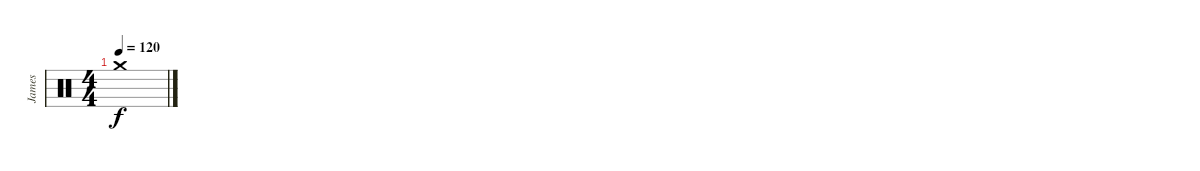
\track ("James" "James") {instrument percussion}
\staff {score}
\articulation defaults
\ts (4 4)
\tempo 120
\clef neutral
\ks c "Crash medium (hit)".1{dy f}
